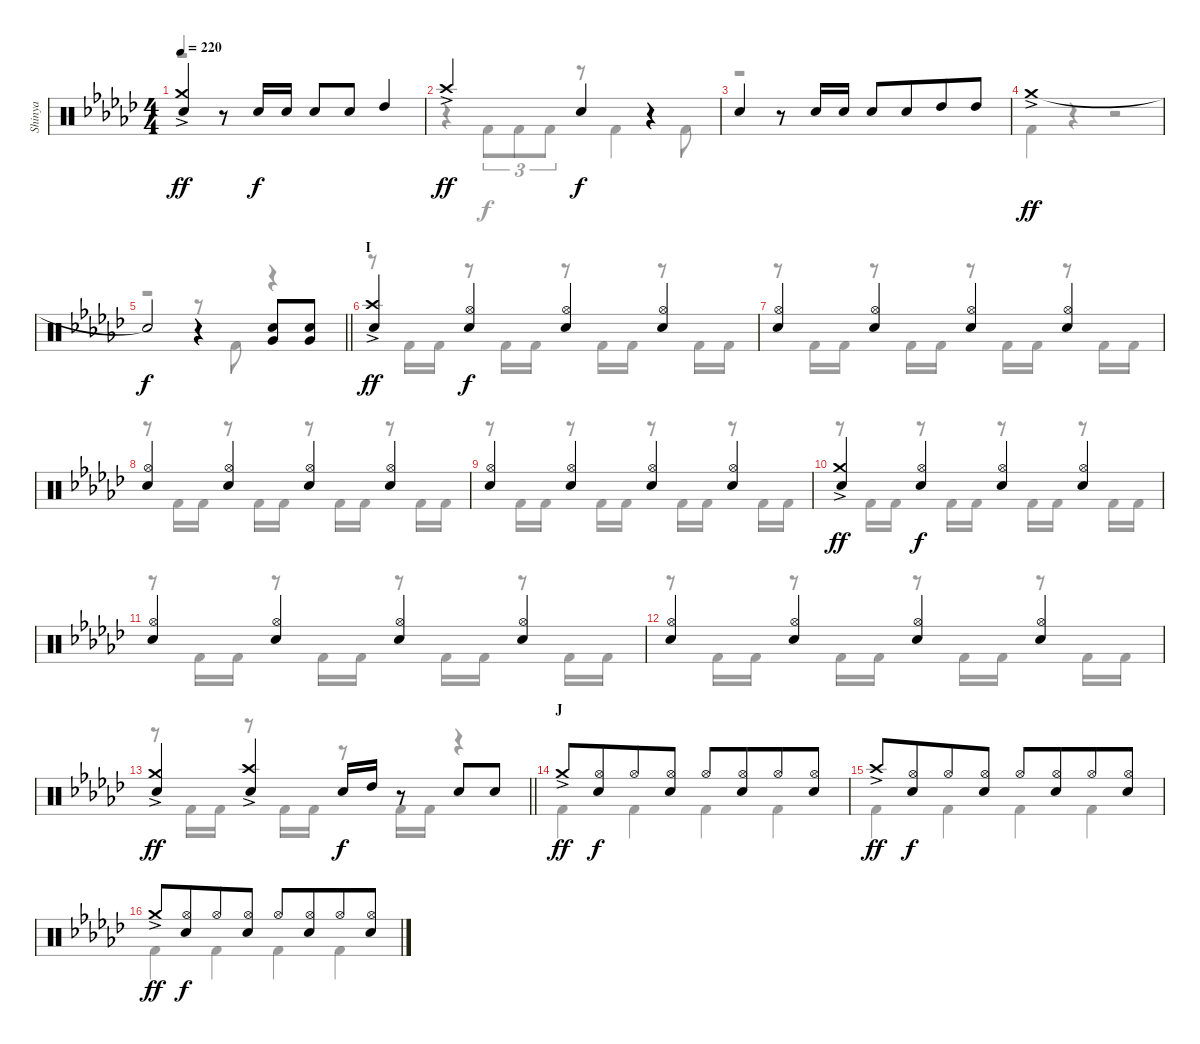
\track ("Shinya" "Shinya") {instrument percussion}
\staff {score}
\articulation defaults
\voice
\ts (4 4)
\tempo 220
\clef neutral
\ks ebminor
("Crash medium (hit)"{ac} "Snare (hit) 2").4{dy ff} r.8 "Snare (hit) 2".16{dy f} "Snare (hit) 2".16 "Snare (hit) 2".8 "Snare (hit) 2".8 "High Tom (hit)".4 |
"Crash high (hit)"{ac}.2{dy ff} "Snare (hit) 2".4{dy f} r.4 |
"Snare (hit) 2".4 r.8 "Snare (hit) 2".16 "Snare (hit) 2".16 "Snare (hit) 2".8 "Snare (hit) 2".8{beam merge} "High Tom (hit)".8 "High Tom (hit)".8 |
"Crash medium (hit)"{ac}.1{dy ff} |
\barLineRight lightlight "Snare (hit)"{t}.2{dy f}
r.4 ("Snare (hit) 2" "Very Low Tom (hit)").8 ("Snare (hit) 2" "Very Low Tom (hit)").8 |
\section ("" "I")
("Crash high (hit)"{ac} "Snare (hit) 2").4{dy ff} ("Hi-Hat (open)" "Snare (hit) 2").4{dy f} ("Hi-Hat (open)" "Snare (hit) 2").4 ("Hi-Hat (open)" "Snare (hit) 2").4 |
("Hi-Hat (open)" "Snare (hit) 2").4 ("Hi-Hat (open)" "Snare (hit) 2").4 ("Hi-Hat (open)" "Snare (hit) 2").4 ("Hi-Hat (open)" "Snare (hit) 2").4 |
("Hi-Hat (open)" "Snare (hit) 2").4 ("Hi-Hat (open)" "Snare (hit) 2").4 ("Hi-Hat (open)" "Snare (hit) 2").4 ("Hi-Hat (open)" "Snare (hit) 2").4 |
("Hi-Hat (open)" "Snare (hit) 2").4 ("Hi-Hat (open)" "Snare (hit) 2").4 ("Hi-Hat (open)" "Snare (hit) 2").4 ("Hi-Hat (open)" "Snare (hit) 2").4 |
("Crash medium (hit)"{ac} "Snare (hit) 2").4{dy ff} ("Hi-Hat (open)" "Snare (hit) 2").4{dy f} ("Hi-Hat (open)" "Snare (hit) 2").4 ("Hi-Hat (open)" "Snare (hit) 2").4 |
("Hi-Hat (open)" "Snare (hit) 2").4 ("Hi-Hat (open)" "Snare (hit) 2").4 ("Hi-Hat (open)" "Snare (hit) 2").4 ("Hi-Hat (open)" "Snare (hit) 2").4 |
("Hi-Hat (open)" "Snare (hit) 2").4 ("Hi-Hat (open)" "Snare (hit) 2").4 ("Hi-Hat (open)" "Snare (hit) 2").4 ("Hi-Hat (open)" "Snare (hit) 2").4 |
\barLineRight lightlight
("Crash medium (hit)"{ac} "Snare (hit) 2").4{dy ff} ("Crash high (hit)"{ac} "Snare (hit) 2").4 "Snare (hit) 2".16{dy f} "High Tom (hit)".16 r.8 "Snare (hit) 2".8 "Snare (hit) 2".8 |
\section ("" "J")
"Crash medium (hit)"{ac}.8{dy ff} ("Hi-Hat (open)" "Snare (hit) 2").8{dy f beam merge} "Hi-Hat (open)".8 ("Hi-Hat (open)" "Snare (hit) 2").8 "Hi-Hat (open)".8 ("Hi-Hat (open)" "Snare (hit) 2").8{beam merge} "Hi-Hat (open)".8 ("Hi-Hat (open)" "Snare (hit) 2").8 |
"Crash high (hit)"{ac}.8{dy ff} ("Hi-Hat (open)" "Snare (hit) 2").8{dy f beam merge} "Hi-Hat (open)".8 ("Hi-Hat (open)" "Snare (hit) 2").8 "Hi-Hat (open)".8 ("Hi-Hat (open)" "Snare (hit) 2").8{beam merge} "Hi-Hat (open)".8 ("Hi-Hat (open)" "Snare (hit) 2").8 |
"Crash medium (hit)"{ac}.8{dy ff} ("Hi-Hat (open)" "Snare (hit) 2").8{dy f beam merge} "Hi-Hat (open)".8 ("Hi-Hat (open)" "Snare (hit) 2").8 "Hi-Hat (open)".8 ("Hi-Hat (open)" "Snare (hit) 2").8{beam merge} "Hi-Hat (open)".8 ("Hi-Hat (open)" "Snare (hit) 2").8
\voice
\clef neutral
\ottava regular
\simile none
\ks ebminor
r.1{dy f} |
r.4 "Kick (hit) 2".8{tu (3 2)} "Kick (hit) 2".8{tu (3 2)} "Kick (hit) 2".8{tu (3 2)} r.8 "Kick (hit) 2".4 "Kick (hit) 2".8 |
r.1 |
"Kick (hit) 2".4 r.4 r.2 |
\barLineRight lightlight
r.2 r.8 "Kick (hit) 2".8 r.4 |
r.8 "Kick (hit) 2".16 "Kick (hit) 2".16 r.8 "Kick (hit) 2".16 "Kick (hit) 2".16 r.8 "Kick (hit) 2".16 "Kick (hit) 2".16 r.8 "Kick (hit) 2".16 "Kick (hit) 2".16 |
r.8 "Kick (hit) 2".16 "Kick (hit) 2".16 r.8 "Kick (hit) 2".16 "Kick (hit) 2".16 r.8 "Kick (hit) 2".16 "Kick (hit) 2".16 r.8 "Kick (hit) 2".16 "Kick (hit) 2".16 |
r.8 "Kick (hit) 2".16 "Kick (hit) 2".16 r.8 "Kick (hit) 2".16 "Kick (hit) 2".16 r.8 "Kick (hit) 2".16 "Kick (hit) 2".16 r.8 "Kick (hit) 2".16 "Kick (hit) 2".16 |
r.8 "Kick (hit) 2".16 "Kick (hit) 2".16 r.8 "Kick (hit) 2".16 "Kick (hit) 2".16 r.8 "Kick (hit) 2".16 "Kick (hit) 2".16 r.8 "Kick (hit) 2".16 "Kick (hit) 2".16 |
r.8 "Kick (hit) 2".16 "Kick (hit) 2".16 r.8 "Kick (hit) 2".16 "Kick (hit) 2".16 r.8 "Kick (hit) 2".16 "Kick (hit) 2".16 r.8 "Kick (hit) 2".16 "Kick (hit) 2".16 |
r.8 "Kick (hit) 2".16 "Kick (hit) 2".16 r.8 "Kick (hit) 2".16 "Kick (hit) 2".16 r.8 "Kick (hit) 2".16 "Kick (hit) 2".16 r.8 "Kick (hit) 2".16 "Kick (hit) 2".16 |
r.8 "Kick (hit) 2".16 "Kick (hit) 2".16 r.8 "Kick (hit) 2".16 "Kick (hit) 2".16 r.8 "Kick (hit) 2".16 "Kick (hit) 2".16 r.8 "Kick (hit) 2".16 "Kick (hit) 2".16 |
\barLineRight lightlight
r.8 "Kick (hit) 2".16 "Kick (hit) 2".16 r.8 "Kick (hit) 2".16 "Kick (hit) 2".16 r.8 "Kick (hit) 2".16 "Kick (hit) 2".16 r.4 |
"Kick (hit) 2".4 "Kick (hit) 2".4 "Kick (hit) 2".4 "Kick (hit) 2".4 |
"Kick (hit) 2".4 "Kick (hit) 2".4 "Kick (hit) 2".4 "Kick (hit) 2".4 |
"Kick (hit) 2".4 "Kick (hit) 2".4 "Kick (hit) 2".4 "Kick (hit) 2".4
